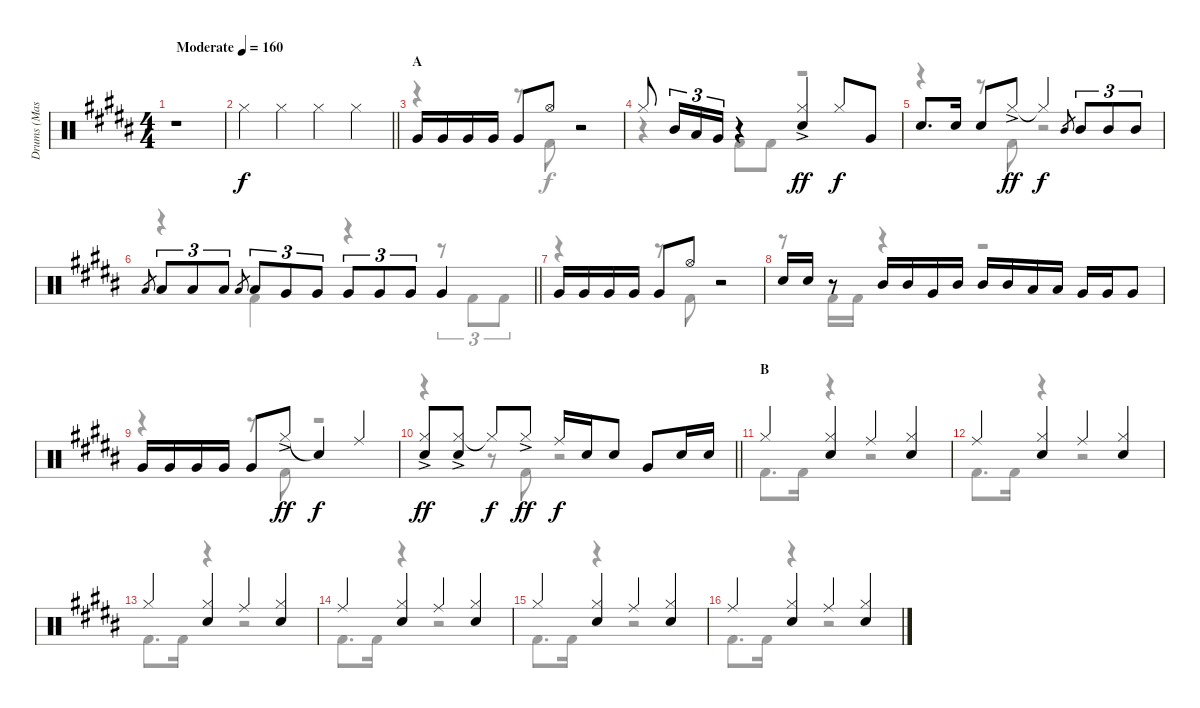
\track ("Drums (Masafumi Minato)" "Drums (Mas") {instrument percussion}
\staff {score}
\articulation defaults
\voice
\ts (4 4)
\tempo (160 "Moderate")
\clef neutral
\ks g#minor
r.1{dy f} |
\barLineRight lightlight "Hi-Hat (closed)".4 "Hi-Hat (closed)".4 "Hi-Hat (closed)".4 "Hi-Hat (closed)".4
|
\section ("" "A")
"Very Low Tom (hit)".16 "Very Low Tom (hit)".16 "Very Low Tom (hit)".16 "Very Low Tom (hit)".16 "Very Low Tom (hit)".8 "Hi-Hat (open)".8 r.2 |
"Hi-Hat (closed)".8 "Mid Tom (hit)".16{tu (3 2)} "Low Tom (hit)".16{tu (3 2)} "Very Low Tom (hit)".16{tu (3 2)} r.4 ("Hi-Hat (closed)"{ac} "Snare (hit) 2").4{dy ff} "Hi-Hat (closed)".8{dy f} "Very Low Tom (hit)".8 |
"Snare (hit) 2".8{d} "Snare (hit) 2".16 "Snare (hit) 2".8 "Hi-Hat (closed)"{ac}.8{dy ff} "Hi-Hat (closed)"{t}.4{dy f} "Mid Tom (hit)".8{gr} "Mid Tom (hit)".8{tu (3 2)} "Mid Tom (hit)".8{tu (3 2)} "Mid Tom (hit)".8{tu (3 2)} |
\barLineRight lightlight "Low Tom (hit)".8{gr} "Low Tom (hit)".8{tu (3 2)} "Low Tom (hit)".8{tu (3 2)} "Low Tom (hit)".8{tu (3 2)} "Low Tom (hit)".8{gr} "Low Tom (hit)".8{tu (3 2)} "Very Low Tom (hit)".8{tu (3 2)} "Very Low Tom (hit)".8{tu (3 2)} "Very Low Tom (hit)".8{tu (3 2)} "Very Low Tom (hit)".8{tu (3 2)} "Very Low Tom (hit)".8{tu (3 2)} "Very Low Tom (hit)".4
|
"Very Low Tom (hit)".16 "Very Low Tom (hit)".16 "Very Low Tom (hit)".16 "Very Low Tom (hit)".16 "Very Low Tom (hit)".8 "Hi-Hat (open)".8 r.2 |
"Snare (hit) 2".16 "Snare (hit) 2".16 r.8 "Mid Tom (hit)".16 "Mid Tom (hit)".16 "Very Low Tom (hit)".16 "Mid Tom (hit)".16 "Mid Tom (hit)".16 "Mid Tom (hit)".16 "Low Tom (hit)".16 "Low Tom (hit)".16 "Very Low Tom (hit)".16 "Very Low Tom (hit)".16 "Very Low Tom (hit)".8 |
"Very Low Tom (hit)".16 "Very Low Tom (hit)".16 "Very Low Tom (hit)".16 "Very Low Tom (hit)".16 "Very Low Tom (hit)".8 "Hi-Hat (closed)"{ac}.8{dy ff} "Snare (hit)"{t}.4{dy f} "Ride (middle)".4 |
\barLineRight lightlight
("Hi-Hat (closed)"{ac} "Snare (hit) 2").8{dy ff} ("Hi-Hat (closed)"{ac} "Snare (hit) 2").8 "Hi-Hat (closed)"{t}.8{dy f} "Hi-Hat (closed)"{ac}.8{dy ff} "Ride (middle)".16{dy f} "Snare (hit) 2".16 "Snare (hit) 2".8 "Very Low Tom (hit)".8 "Snare (hit) 2".16 "Snare (hit) 2".16 |
\section ("" "B")
"Hi-Hat (closed)".4 ("Hi-Hat (closed)" "Snare (hit) 2").4 "Ride (middle)".4 ("Hi-Hat (closed)" "Snare (hit) 2").4 |
"Ride (middle)".4 ("Hi-Hat (closed)" "Snare (hit) 2").4 "Ride (middle)".4 ("Hi-Hat (closed)" "Snare (hit) 2").4 |
"Hi-Hat (closed)".4 ("Hi-Hat (closed)" "Snare (hit) 2").4 "Ride (middle)".4 ("Hi-Hat (closed)" "Snare (hit) 2").4 |
"Ride (middle)".4 ("Hi-Hat (closed)" "Snare (hit) 2").4 "Ride (middle)".4 ("Hi-Hat (closed)" "Snare (hit) 2").4 |
"Hi-Hat (closed)".4 ("Hi-Hat (closed)" "Snare (hit) 2").4 "Ride (middle)".4 ("Hi-Hat (closed)" "Snare (hit) 2").4 |
"Ride (middle)".4 ("Hi-Hat (closed)" "Snare (hit) 2").4 "Ride (middle)".4 ("Hi-Hat (closed)" "Snare (hit) 2").4
\voice
\clef neutral
\ottava regular
\simile none
\ks g#minor
|
\barLineRight lightlight
|
r.4 r.8 "Kick (hit) 2".8 r.2 |
r.4 "Kick (hit) 2".8 "Kick (hit) 2".8 r.2 |
r.4 r.8 "Kick (hit) 2".8 r.2 |
\barLineRight lightlight
r.4 "Kick (hit) 2".4 r.4 r.8{tu (3 2)} "Kick (hit) 2".8{tu (3 2)} "Kick (hit) 2".8{tu (3 2)} |
r.4 r.8 "Kick (hit) 2".8 r.2 |
r.8 "Kick (hit) 2".16 "Kick (hit) 2".16 r.4 r.2 |
r.4 r.8 "Kick (hit) 2".8 r.2 |
\barLineRight lightlight
r.4 r.8 "Kick (hit) 2".8 r.2 |
"Kick (hit) 2".8{d} "Kick (hit) 2".16 r.4 r.2 |
"Kick (hit) 2".8{d} "Kick (hit) 2".16 r.4 r.2 |
"Kick (hit) 2".8{d} "Kick (hit) 2".16 r.4 r.2 |
"Kick (hit) 2".8{d} "Kick (hit) 2".16 r.4 r.2 |
"Kick (hit) 2".8{d} "Kick (hit) 2".16 r.4 r.2 |
"Kick (hit) 2".8{d} "Kick (hit) 2".16 r.4 r.2
